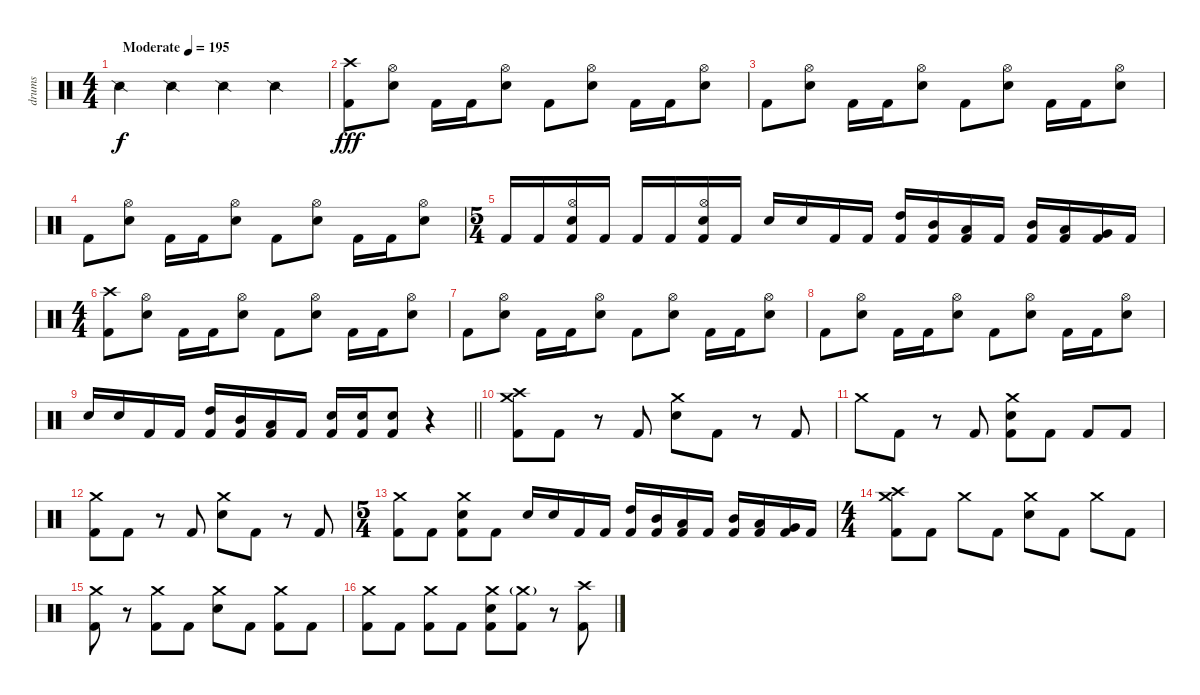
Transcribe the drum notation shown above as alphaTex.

\track ("drums" "drums") {instrument percussion}
\staff {score}
\articulation defaults
\ts (4 4)
\tempo (195 "Moderate")
\clef neutral
\ks c "Snare (side stick) 2".4{dy f} "Snare (side stick) 2".4 "Snare (side stick) 2".4 "Snare (side stick) 2".4
|
("Crash high (hit)" "Kick (hit) 2").8{dy fff} ("Hi-Hat (open)" "Electric Snare (hit)").8 "Kick (hit) 2".16 "Kick (hit) 2".16 ("Hi-Hat (open)" "Electric Snare (hit)").8 "Kick (hit) 2".8 ("Hi-Hat (open)" "Electric Snare (hit)").8 "Kick (hit) 2".16 "Kick (hit) 2".16 ("Hi-Hat (open)" "Electric Snare (hit)").8 |
"Kick (hit) 2".8 ("Hi-Hat (open)" "Electric Snare (hit)").8 "Kick (hit) 2".16 "Kick (hit) 2".16 ("Hi-Hat (open)" "Electric Snare (hit)").8 "Kick (hit) 2".8 ("Hi-Hat (open)" "Electric Snare (hit)").8 "Kick (hit) 2".16 "Kick (hit) 2".16 ("Hi-Hat (open)" "Electric Snare (hit)").8 |
"Kick (hit) 2".8 ("Hi-Hat (open)" "Electric Snare (hit)").8 "Kick (hit) 2".16 "Kick (hit) 2".16 ("Hi-Hat (open)" "Electric Snare (hit)").8 "Kick (hit) 2".8 ("Hi-Hat (open)" "Electric Snare (hit)").8 "Kick (hit) 2".16 "Kick (hit) 2".16 ("Hi-Hat (open)" "Electric Snare (hit)").8 |
\ts (5 4)
"Kick (hit) 2".16 "Kick (hit) 2".16 ("Hi-Hat (open)" "Electric Snare (hit)" "Kick (hit) 2").16 "Kick (hit) 2".16 "Kick (hit) 2".16 "Kick (hit) 2".16 ("Hi-Hat (open)" "Electric Snare (hit)" "Kick (hit) 2").16 "Kick (hit) 2".16 "Electric Snare (hit)".16 "Electric Snare (hit)".16 "Kick (hit) 2".16 "Kick (hit) 2".16 ("High Tom (hit)" "Kick (hit) 2").16 ("Mid Tom (hit)" "Kick (hit) 2").16 ("Low Tom (hit)" "Kick (hit) 2").16 "Kick (hit) 2".16 ("Mid Tom (hit)" "Kick (hit) 2").16 ("Low Tom (hit)" "Kick (hit) 2").16 ("Very Low Tom (hit)" "Kick (hit) 2").16 "Kick (hit) 2".16 |
\ts (4 4)
("Crash high (hit)" "Kick (hit) 2").8 ("Hi-Hat (open)" "Electric Snare (hit)").8 "Kick (hit) 2".16 "Kick (hit) 2".16 ("Hi-Hat (open)" "Electric Snare (hit)").8 "Kick (hit) 2".8 ("Hi-Hat (open)" "Electric Snare (hit)").8 "Kick (hit) 2".16 "Kick (hit) 2".16 ("Hi-Hat (open)" "Electric Snare (hit)").8 |
"Kick (hit) 2".8 ("Hi-Hat (open)" "Electric Snare (hit)").8 "Kick (hit) 2".16 "Kick (hit) 2".16 ("Hi-Hat (open)" "Electric Snare (hit)").8 "Kick (hit) 2".8 ("Hi-Hat (open)" "Electric Snare (hit)").8 "Kick (hit) 2".16 "Kick (hit) 2".16 ("Hi-Hat (open)" "Electric Snare (hit)").8 |
"Kick (hit) 2".8 ("Hi-Hat (open)" "Electric Snare (hit)").8 "Kick (hit) 2".16 "Kick (hit) 2".16 ("Hi-Hat (open)" "Electric Snare (hit)").8 "Kick (hit) 2".8 ("Hi-Hat (open)" "Electric Snare (hit)").8 "Kick (hit) 2".16 "Kick (hit) 2".16 ("Hi-Hat (open)" "Electric Snare (hit)").8 |
\barLineRight lightlight "Electric Snare (hit)".16 "Electric Snare (hit)".16 "Kick (hit) 2".16 "Kick (hit) 2".16
("High Tom (hit)" "Kick (hit) 2").16 ("Mid Tom (hit)" "Kick (hit) 2").16 ("Low Tom (hit)" "Kick (hit) 2").16 "Kick (hit) 2".16 ("Electric Snare (hit)" "Kick (hit) 2").16 ("Electric Snare (hit)" "Kick (hit) 2").16 ("Electric Snare (hit)" "Kick (hit) 2").8 r.4 |
\section ("" "")
("Crash high (hit)" "Crash medium (hit)" "Kick (hit) 2").8 "Kick (hit) 2".8 r.8 "Kick (hit) 2".8 ("Crash medium (hit)" "Electric Snare (hit)").8 "Kick (hit) 2".8 r.8 "Kick (hit) 2".8 |
"Crash medium (hit)".8 "Kick (hit) 2".8 r.8 "Kick (hit) 2".8 ("Crash medium (hit)" "Electric Snare (hit)" "Kick (hit) 2").8 "Kick (hit) 2".8 "Kick (hit) 2".8 "Kick (hit) 2".8 |
("Crash medium (hit)" "Kick (hit) 2").8 "Kick (hit) 2".8 r.8 "Kick (hit) 2".8 ("Crash medium (hit)" "Electric Snare (hit)").8 "Kick (hit) 2".8 r.8 "Kick (hit) 2".8 |
\ts (5 4)
("Crash medium (hit)" "Kick (hit) 2").8 "Kick (hit) 2".8 ("Crash medium (hit)" "Electric Snare (hit)" "Kick (hit) 2").8 "Kick (hit) 2".8 "Electric Snare (hit)".16 "Electric Snare (hit)".16 "Kick (hit) 2".16 "Kick (hit) 2".16 ("High Tom (hit)" "Kick (hit) 2").16 ("Mid Tom (hit)" "Kick (hit) 2").16 ("Low Tom (hit)" "Kick (hit) 2").16 "Kick (hit) 2".16 ("Mid Tom (hit)" "Kick (hit) 2").16 ("Low Tom (hit)" "Kick (hit) 2").16 ("Very Low Tom (hit)" "Kick (hit) 2").16 "Kick (hit) 2".16 |
\ts (4 4)
("Crash high (hit)" "Crash medium (hit)" "Kick (hit) 2").8 "Kick (hit) 2".8 "Crash medium (hit)".8 "Kick (hit) 2".8 ("Crash medium (hit)" "Electric Snare (hit)").8 "Kick (hit) 2".8 "Crash medium (hit)".8 "Kick (hit) 2".8 |
("Crash medium (hit)" "Kick (hit) 2").8 r.8 ("Crash medium (hit)" "Kick (hit) 2").8 "Kick (hit) 2".8 ("Crash medium (hit)" "Electric Snare (hit)").8 "Kick (hit) 2".8 ("Crash medium (hit)" "Kick (hit) 2").8 "Kick (hit) 2".8 |
("Crash medium (hit)" "Kick (hit) 2").8 "Kick (hit) 2".8 ("Crash medium (hit)" "Kick (hit) 2").8 "Kick (hit) 2".8 ("Crash medium (hit)" "Electric Snare (hit)" "Kick (hit) 2").8 ("Crash medium (hit)"{g} "Kick (hit) 2").8 r.8 ("Crash high (hit)" "Kick (hit) 2").8
